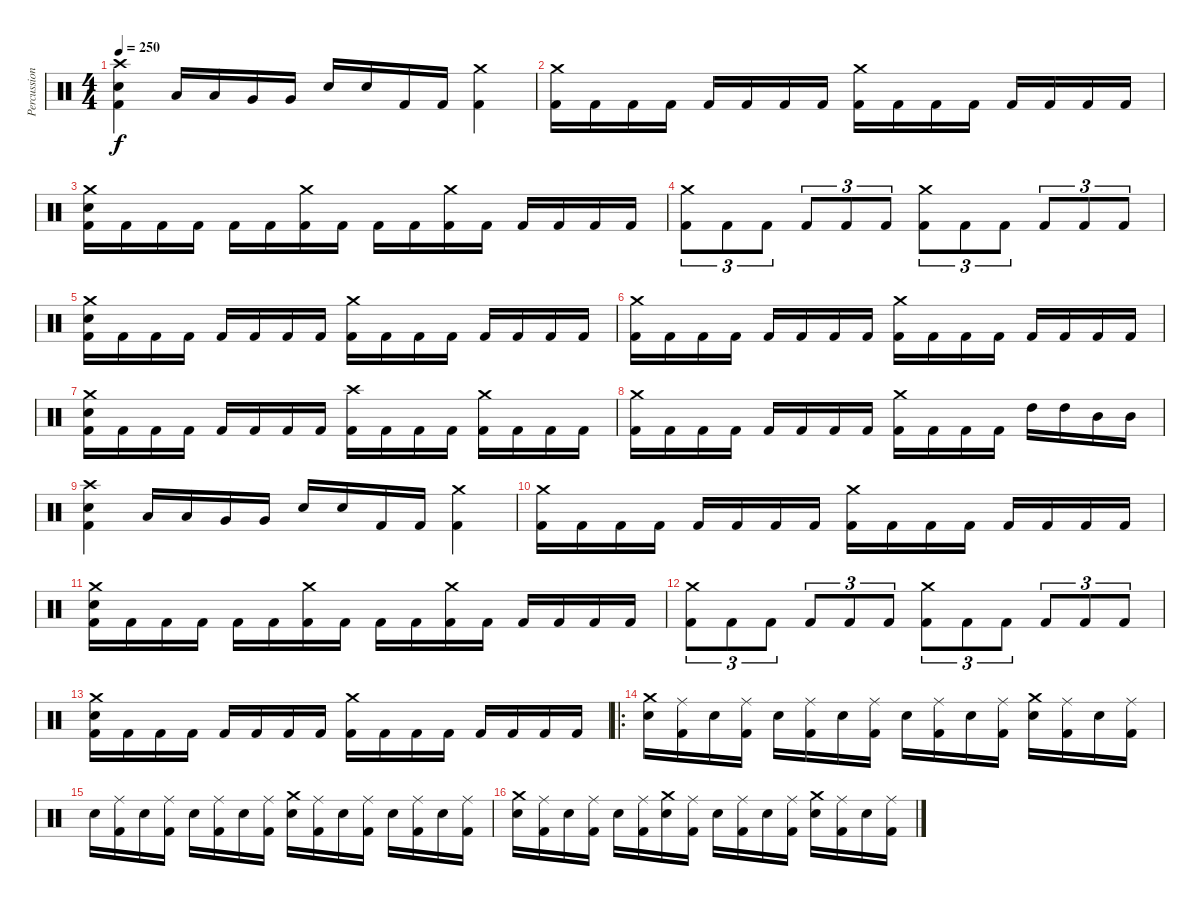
\track ("Percussion" "Percussion") {instrument percussion}
\staff {score}
\articulation defaults
\ts (4 4)
\tempo 250
\clef neutral
\ks c
("Crash high (hit)" "Electric Snare (hit)" "Kick (hit) 2").4{dy f} "Low Tom (hit)".16 "Low Tom (hit)".16 "Very Low Tom (hit)".16 "Very Low Tom (hit)".16 "Electric Snare (hit)".16 "Electric Snare (hit)".16 "Kick (hit) 2".16 "Kick (hit) 2".16 ("Crash medium (hit)" "Kick (hit) 2").4 |
("Crash medium (hit)" "Kick (hit) 2").16 "Kick (hit) 2".16 "Kick (hit) 2".16 "Kick (hit) 2".16 "Kick (hit) 2".16 "Kick (hit) 2".16 "Kick (hit) 2".16 "Kick (hit) 2".16 ("Crash medium (hit)" "Kick (hit) 2").16 "Kick (hit) 2".16 "Kick (hit) 2".16 "Kick (hit) 2".16 "Kick (hit) 2".16 "Kick (hit) 2".16 "Kick (hit) 2".16 "Kick (hit) 2".16 |
("Crash medium (hit)" "Electric Snare (hit)" "Kick (hit) 2").16 "Kick (hit) 2".16 "Kick (hit) 2".16 "Kick (hit) 2".16 "Kick (hit) 2".16 "Kick (hit) 2".16 ("Crash medium (hit)" "Kick (hit) 2").16 "Kick (hit) 2".16 "Kick (hit) 2".16 "Kick (hit) 2".16 ("Crash medium (hit)" "Kick (hit) 2").16 "Kick (hit) 2".16 "Kick (hit) 2".16 "Kick (hit) 2".16 "Kick (hit) 2".16 "Kick (hit) 2".16 |
("Crash medium (hit)" "Kick (hit) 2").8{tu (3 2)} "Kick (hit) 2".8{tu (3 2)} "Kick (hit) 2".8{tu (3 2)} "Kick (hit) 2".8{tu (3 2)} "Kick (hit) 2".8{tu (3 2)} "Kick (hit) 2".8{tu (3 2)} ("Crash medium (hit)" "Kick (hit) 2").8{tu (3 2)} "Kick (hit) 2".8{tu (3 2)} "Kick (hit) 2".8{tu (3 2)} "Kick (hit) 2".8{tu (3 2)} "Kick (hit) 2".8{tu (3 2)} "Kick (hit) 2".8{tu (3 2)} |
("Crash medium (hit)" "Electric Snare (hit)" "Kick (hit) 2").16 "Kick (hit) 2".16 "Kick (hit) 2".16 "Kick (hit) 2".16 "Kick (hit) 2".16 "Kick (hit) 2".16 "Kick (hit) 2".16 "Kick (hit) 2".16 ("Crash medium (hit)" "Kick (hit) 2").16 "Kick (hit) 2".16 "Kick (hit) 2".16 "Kick (hit) 2".16 "Kick (hit) 2".16 "Kick (hit) 2".16 "Kick (hit) 2".16 "Kick (hit) 2".16 |
("Crash medium (hit)" "Kick (hit) 2").16 "Kick (hit) 2".16 "Kick (hit) 2".16 "Kick (hit) 2".16 "Kick (hit) 2".16 "Kick (hit) 2".16 "Kick (hit) 2".16 "Kick (hit) 2".16 ("Crash medium (hit)" "Kick (hit) 2").16 "Kick (hit) 2".16 "Kick (hit) 2".16 "Kick (hit) 2".16 "Kick (hit) 2".16 "Kick (hit) 2".16 "Kick (hit) 2".16 "Kick (hit) 2".16 |
("Crash medium (hit)" "Electric Snare (hit)" "Kick (hit) 2").16 "Kick (hit) 2".16 "Kick (hit) 2".16 "Kick (hit) 2".16 "Kick (hit) 2".16 "Kick (hit) 2".16 "Kick (hit) 2".16 "Kick (hit) 2".16 ("Crash high (hit)" "Kick (hit) 2").16 "Kick (hit) 2".16 "Kick (hit) 2".16 "Kick (hit) 2".16 ("Crash medium (hit)" "Kick (hit) 2").16 "Kick (hit) 2".16 "Kick (hit) 2".16 "Kick (hit) 2".16 |
("Crash medium (hit)" "Kick (hit) 2").16 "Kick (hit) 2".16 "Kick (hit) 2".16 "Kick (hit) 2".16 "Kick (hit) 2".16 "Kick (hit) 2".16 "Kick (hit) 2".16 "Kick (hit) 2".16 ("Crash medium (hit)" "Kick (hit) 2").16 "Kick (hit) 2".16 "Kick (hit) 2".16 "Kick (hit) 2".16 "High Tom (hit)".16 "High Tom (hit)".16 "Mid Tom (hit)".16 "Mid Tom (hit)".16 |
("Crash high (hit)" "Electric Snare (hit)" "Kick (hit) 2").4 "Low Tom (hit)".16 "Low Tom (hit)".16 "Very Low Tom (hit)".16 "Very Low Tom (hit)".16 "Electric Snare (hit)".16 "Electric Snare (hit)".16 "Kick (hit) 2".16 "Kick (hit) 2".16 ("Crash medium (hit)" "Kick (hit) 2").4 |
("Crash medium (hit)" "Kick (hit) 2").16 "Kick (hit) 2".16 "Kick (hit) 2".16 "Kick (hit) 2".16 "Kick (hit) 2".16 "Kick (hit) 2".16 "Kick (hit) 2".16 "Kick (hit) 2".16 ("Crash medium (hit)" "Kick (hit) 2").16 "Kick (hit) 2".16 "Kick (hit) 2".16 "Kick (hit) 2".16 "Kick (hit) 2".16 "Kick (hit) 2".16 "Kick (hit) 2".16 "Kick (hit) 2".16 |
("Crash medium (hit)" "Electric Snare (hit)" "Kick (hit) 2").16 "Kick (hit) 2".16 "Kick (hit) 2".16 "Kick (hit) 2".16 "Kick (hit) 2".16 "Kick (hit) 2".16 ("Crash medium (hit)" "Kick (hit) 2").16 "Kick (hit) 2".16 "Kick (hit) 2".16 "Kick (hit) 2".16 ("Crash medium (hit)" "Kick (hit) 2").16 "Kick (hit) 2".16 "Kick (hit) 2".16 "Kick (hit) 2".16 "Kick (hit) 2".16 "Kick (hit) 2".16 |
("Crash medium (hit)" "Kick (hit) 2").8{tu (3 2)} "Kick (hit) 2".8{tu (3 2)} "Kick (hit) 2".8{tu (3 2)} "Kick (hit) 2".8{tu (3 2)} "Kick (hit) 2".8{tu (3 2)} "Kick (hit) 2".8{tu (3 2)} ("Crash medium (hit)" "Kick (hit) 2").8{tu (3 2)} "Kick (hit) 2".8{tu (3 2)} "Kick (hit) 2".8{tu (3 2)} "Kick (hit) 2".8{tu (3 2)} "Kick (hit) 2".8{tu (3 2)} "Kick (hit) 2".8{tu (3 2)} |
("Crash medium (hit)" "Electric Snare (hit)" "Kick (hit) 2").16 "Kick (hit) 2".16 "Kick (hit) 2".16 "Kick (hit) 2".16 "Kick (hit) 2".16 "Kick (hit) 2".16 "Kick (hit) 2".16 "Kick (hit) 2".16 ("Crash medium (hit)" "Kick (hit) 2").16 "Kick (hit) 2".16 "Kick (hit) 2".16 "Kick (hit) 2".16 "Kick (hit) 2".16 "Kick (hit) 2".16 "Kick (hit) 2".16 "Kick (hit) 2".16 |
\ro
("Crash medium (hit)" "Electric Snare (hit)").16 ("Ride (middle)" "Kick (hit) 2").16 "Electric Snare (hit)".16 ("Ride (middle)" "Kick (hit) 2").16 "Electric Snare (hit)".16 ("Ride (middle)" "Kick (hit) 2").16 "Electric Snare (hit)".16 ("Ride (middle)" "Kick (hit) 2").16 "Electric Snare (hit)".16 ("Ride (middle)" "Kick (hit) 2").16 "Electric Snare (hit)".16 ("Ride (middle)" "Kick (hit) 2").16 ("Crash medium (hit)" "Electric Snare (hit)").16 ("Ride (middle)" "Kick (hit) 2").16 "Electric Snare (hit)".16 ("Ride (middle)" "Kick (hit) 2").16 |
"Electric Snare (hit)".16 ("Ride (middle)" "Kick (hit) 2").16 "Electric Snare (hit)".16 ("Ride (middle)" "Kick (hit) 2").16 "Electric Snare (hit)".16 ("Ride (middle)" "Kick (hit) 2").16 "Electric Snare (hit)".16 ("Ride (middle)" "Kick (hit) 2").16 ("Crash medium (hit)" "Electric Snare (hit)").16 ("Ride (middle)" "Kick (hit) 2").16 "Electric Snare (hit)".16 ("Ride (middle)" "Kick (hit) 2").16 "Electric Snare (hit)".16 ("Ride (middle)" "Kick (hit) 2").16 "Electric Snare (hit)".16 ("Ride (middle)" "Kick (hit) 2").16 |
("Crash medium (hit)" "Electric Snare (hit)").16 ("Ride (middle)" "Kick (hit) 2").16 "Electric Snare (hit)".16 ("Ride (middle)" "Kick (hit) 2").16 "Electric Snare (hit)".16 ("Ride (middle)" "Kick (hit) 2").16 ("Crash medium (hit)" "Electric Snare (hit)").16 ("Ride (middle)" "Kick (hit) 2").16 "Electric Snare (hit)".16 ("Ride (middle)" "Kick (hit) 2").16 "Electric Snare (hit)".16 ("Ride (middle)" "Kick (hit) 2").16 ("Crash medium (hit)" "Electric Snare (hit)").16 ("Ride (middle)" "Kick (hit) 2").16 "Electric Snare (hit)".16 ("Ride (middle)" "Kick (hit) 2").16
